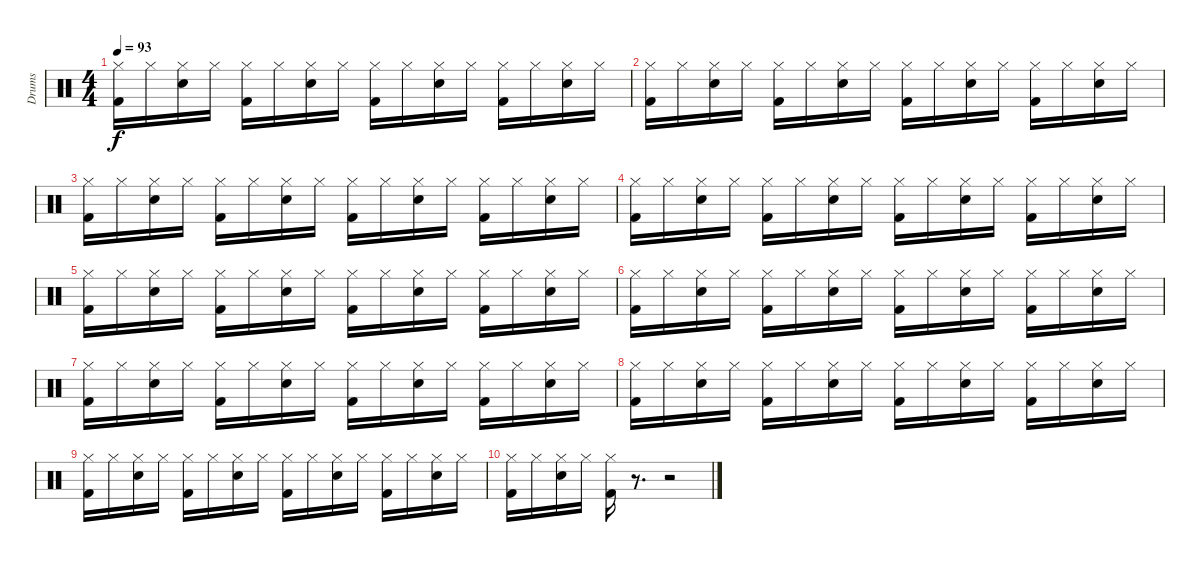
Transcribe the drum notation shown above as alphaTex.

\track ("Drums" "Drums") {instrument percussion}
\staff {score}
\articulation defaults
\ts (4 4)
\tempo 93
\clef neutral
\ks c
("Kick (hit) 2" "Hi-Hat (closed)").16{dy f} "Hi-Hat (closed)".16 ("Snare (hit) 2" "Hi-Hat (closed)").16 "Hi-Hat (closed)".16 ("Kick (hit) 2" "Hi-Hat (closed)").16 "Hi-Hat (closed)".16 ("Snare (hit) 2" "Hi-Hat (closed)").16 "Hi-Hat (closed)".16 ("Kick (hit) 2" "Hi-Hat (closed)").16 "Hi-Hat (closed)".16 ("Snare (hit) 2" "Hi-Hat (closed)").16 "Hi-Hat (closed)".16 ("Kick (hit) 2" "Hi-Hat (closed)").16 "Hi-Hat (closed)".16 ("Snare (hit) 2" "Hi-Hat (closed)").16 "Hi-Hat (closed)".16 |
("Kick (hit) 2" "Hi-Hat (closed)").16 "Hi-Hat (closed)".16 ("Snare (hit) 2" "Hi-Hat (closed)").16 "Hi-Hat (closed)".16 ("Kick (hit) 2" "Hi-Hat (closed)").16 "Hi-Hat (closed)".16 ("Snare (hit) 2" "Hi-Hat (closed)").16 "Hi-Hat (closed)".16 ("Kick (hit) 2" "Hi-Hat (closed)").16 "Hi-Hat (closed)".16 ("Snare (hit) 2" "Hi-Hat (closed)").16 "Hi-Hat (closed)".16 ("Kick (hit) 2" "Hi-Hat (closed)").16 "Hi-Hat (closed)".16 ("Snare (hit) 2" "Hi-Hat (closed)").16 "Hi-Hat (closed)".16 |
("Kick (hit) 2" "Hi-Hat (closed)").16 "Hi-Hat (closed)".16 ("Snare (hit) 2" "Hi-Hat (closed)").16 "Hi-Hat (closed)".16 ("Kick (hit) 2" "Hi-Hat (closed)").16 "Hi-Hat (closed)".16 ("Snare (hit) 2" "Hi-Hat (closed)").16 "Hi-Hat (closed)".16 ("Kick (hit) 2" "Hi-Hat (closed)").16 "Hi-Hat (closed)".16 ("Snare (hit) 2" "Hi-Hat (closed)").16 "Hi-Hat (closed)".16 ("Kick (hit) 2" "Hi-Hat (closed)").16 "Hi-Hat (closed)".16 ("Snare (hit) 2" "Hi-Hat (closed)").16 "Hi-Hat (closed)".16 |
("Kick (hit) 2" "Hi-Hat (closed)").16 "Hi-Hat (closed)".16 ("Snare (hit) 2" "Hi-Hat (closed)").16 "Hi-Hat (closed)".16 ("Kick (hit) 2" "Hi-Hat (closed)").16 "Hi-Hat (closed)".16 ("Snare (hit) 2" "Hi-Hat (closed)").16 "Hi-Hat (closed)".16 ("Kick (hit) 2" "Hi-Hat (closed)").16 "Hi-Hat (closed)".16 ("Snare (hit) 2" "Hi-Hat (closed)").16 "Hi-Hat (closed)".16 ("Kick (hit) 2" "Hi-Hat (closed)").16 "Hi-Hat (closed)".16 ("Snare (hit) 2" "Hi-Hat (closed)").16 "Hi-Hat (closed)".16 |
("Kick (hit) 2" "Hi-Hat (closed)").16 "Hi-Hat (closed)".16 ("Snare (hit) 2" "Hi-Hat (closed)").16 "Hi-Hat (closed)".16 ("Kick (hit) 2" "Hi-Hat (closed)").16 "Hi-Hat (closed)".16 ("Snare (hit) 2" "Hi-Hat (closed)").16 "Hi-Hat (closed)".16 ("Kick (hit) 2" "Hi-Hat (closed)").16 "Hi-Hat (closed)".16 ("Snare (hit) 2" "Hi-Hat (closed)").16 "Hi-Hat (closed)".16 ("Kick (hit) 2" "Hi-Hat (closed)").16 "Hi-Hat (closed)".16 ("Snare (hit) 2" "Hi-Hat (closed)").16 "Hi-Hat (closed)".16 |
("Kick (hit) 2" "Hi-Hat (closed)").16 "Hi-Hat (closed)".16 ("Snare (hit) 2" "Hi-Hat (closed)").16 "Hi-Hat (closed)".16 ("Kick (hit) 2" "Hi-Hat (closed)").16 "Hi-Hat (closed)".16 ("Snare (hit) 2" "Hi-Hat (closed)").16 "Hi-Hat (closed)".16 ("Kick (hit) 2" "Hi-Hat (closed)").16 "Hi-Hat (closed)".16 ("Snare (hit) 2" "Hi-Hat (closed)").16 "Hi-Hat (closed)".16 ("Kick (hit) 2" "Hi-Hat (closed)").16 "Hi-Hat (closed)".16 ("Snare (hit) 2" "Hi-Hat (closed)").16 "Hi-Hat (closed)".16 |
("Kick (hit) 2" "Hi-Hat (closed)").16 "Hi-Hat (closed)".16 ("Snare (hit) 2" "Hi-Hat (closed)").16 "Hi-Hat (closed)".16 ("Kick (hit) 2" "Hi-Hat (closed)").16 "Hi-Hat (closed)".16 ("Snare (hit) 2" "Hi-Hat (closed)").16 "Hi-Hat (closed)".16 ("Kick (hit) 2" "Hi-Hat (closed)").16 "Hi-Hat (closed)".16 ("Snare (hit) 2" "Hi-Hat (closed)").16 "Hi-Hat (closed)".16 ("Kick (hit) 2" "Hi-Hat (closed)").16 "Hi-Hat (closed)".16 ("Snare (hit) 2" "Hi-Hat (closed)").16 "Hi-Hat (closed)".16 |
("Kick (hit) 2" "Hi-Hat (closed)").16 "Hi-Hat (closed)".16 ("Snare (hit) 2" "Hi-Hat (closed)").16 "Hi-Hat (closed)".16 ("Kick (hit) 2" "Hi-Hat (closed)").16 "Hi-Hat (closed)".16 ("Snare (hit) 2" "Hi-Hat (closed)").16 "Hi-Hat (closed)".16 ("Kick (hit) 2" "Hi-Hat (closed)").16 "Hi-Hat (closed)".16 ("Snare (hit) 2" "Hi-Hat (closed)").16 "Hi-Hat (closed)".16 ("Kick (hit) 2" "Hi-Hat (closed)").16 "Hi-Hat (closed)".16 ("Snare (hit) 2" "Hi-Hat (closed)").16 "Hi-Hat (closed)".16 |
("Kick (hit) 2" "Hi-Hat (closed)").16 "Hi-Hat (closed)".16 ("Snare (hit) 2" "Hi-Hat (closed)").16 "Hi-Hat (closed)".16 ("Kick (hit) 2" "Hi-Hat (closed)").16 "Hi-Hat (closed)".16 ("Snare (hit) 2" "Hi-Hat (closed)").16 "Hi-Hat (closed)".16 ("Kick (hit) 2" "Hi-Hat (closed)").16 "Hi-Hat (closed)".16 ("Snare (hit) 2" "Hi-Hat (closed)").16 "Hi-Hat (closed)".16 ("Kick (hit) 2" "Hi-Hat (closed)").16 "Hi-Hat (closed)".16 ("Snare (hit) 2" "Hi-Hat (closed)").16 "Hi-Hat (closed)".16 |
("Kick (hit) 2" "Hi-Hat (closed)").16 "Hi-Hat (closed)".16 ("Snare (hit) 2" "Hi-Hat (closed)").16 "Hi-Hat (closed)".16 ("Kick (hit) 2" "Hi-Hat (closed)").16 r.8{d} r.2
